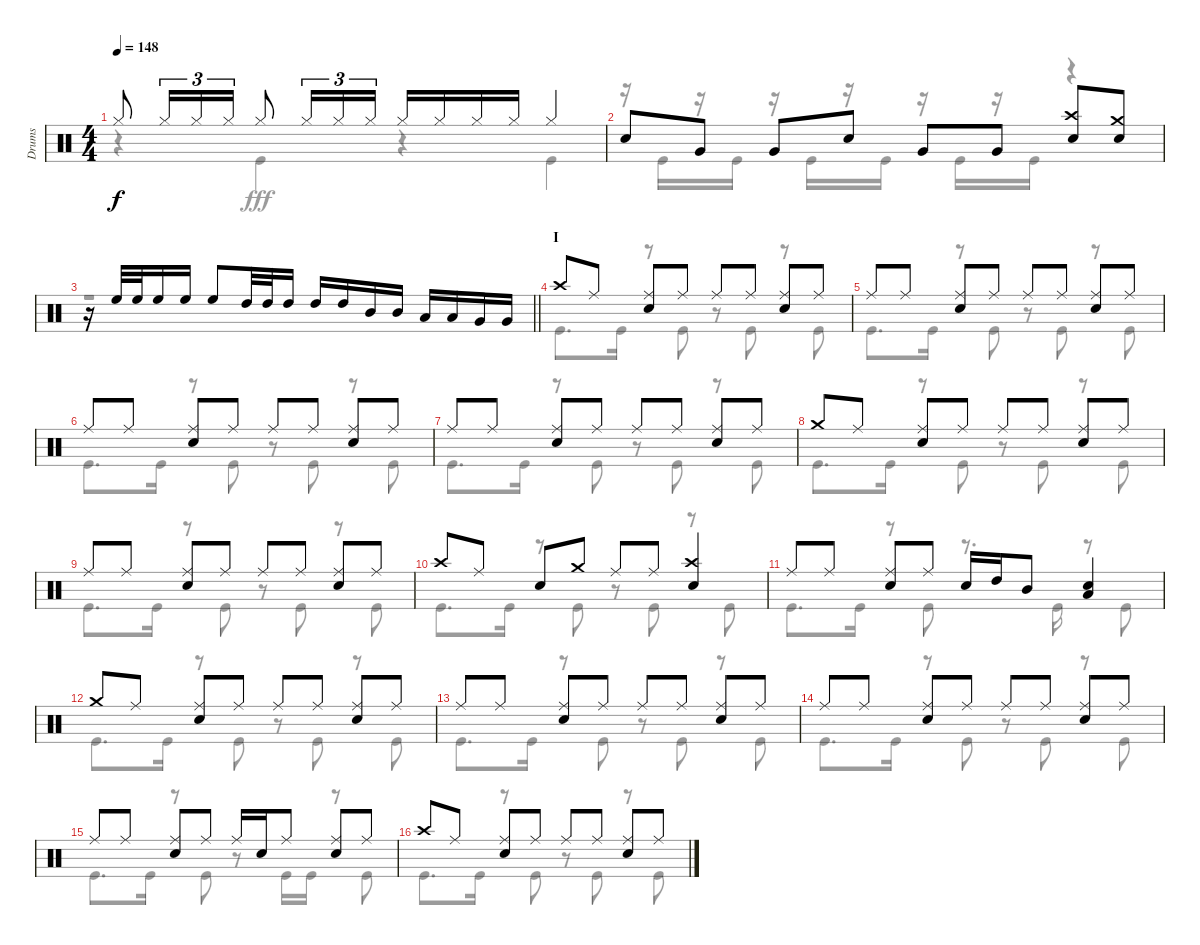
\track ("Drums" "Drums") {instrument percussion}
\staff {score}
\articulation defaults
\voice
\ts (4 4)
\tempo 148
\clef neutral
\ks c "Hi-Hat (closed)".8{dy f} "Hi-Hat (closed)".16{tu (3 2)} "Hi-Hat (closed)".16{tu (3 2)} "Hi-Hat (closed)".16{tu (3 2)} "Hi-Hat (closed)".8 "Hi-Hat (closed)".16{tu (3 2)} "Hi-Hat (closed)".16{tu (3 2)} "Hi-Hat (closed)".16{tu (3 2)} "Hi-Hat (closed)".16 "Hi-Hat (closed)".16 "Hi-Hat (closed)".16 "Hi-Hat (closed)".16 "Hi-Hat (closed)".4
|
"Snare (hit) 2".8 "Very Low Tom (hit)".8 "Very Low Tom (hit)".8 "Snare (hit) 2".8 "Very Low Tom (hit)".8 "Very Low Tom (hit)".8 ("Crash high (hit)" "Snare (hit) 2").8 ("Crash medium (hit)" "Snare (hit) 2").8 |
\barLineRight lightlight
r.16 "High Floor Tom (hit)".32 "High Floor Tom (hit)".32 "High Floor Tom (hit)".16 "High Floor Tom (hit)".16 "High Floor Tom (hit)".8 "High Tom (hit)".32 "High Tom (hit)".32 "High Tom (hit)".16 "High Tom (hit)".16 "High Tom (hit)".16 "Mid Tom (hit)".16 "Mid Tom (hit)".16 "Low Tom (hit)".16 "Low Tom (hit)".16 "Very Low Tom (hit)".16 "Very Low Tom (hit)".16 |
\section ("" "I")
"Crash high (hit)".8 "Ride (middle)".8 ("Ride (middle)" "Snare (hit) 2").8 "Ride (middle)".8 "Ride (middle)".8 "Ride (middle)".8 ("Ride (middle)" "Snare (hit) 2").8 "Ride (middle)".8 |
"Ride (middle)".8 "Ride (middle)".8 ("Ride (middle)" "Snare (hit) 2").8 "Ride (middle)".8 "Ride (middle)".8 "Ride (middle)".8 ("Ride (middle)" "Snare (hit) 2").8 "Ride (middle)".8 |
"Ride (middle)".8 "Ride (middle)".8 ("Ride (middle)" "Snare (hit) 2").8 "Ride (middle)".8 "Ride (middle)".8 "Ride (middle)".8 ("Ride (middle)" "Snare (hit) 2").8 "Ride (middle)".8 |
"Ride (middle)".8 "Ride (middle)".8 ("Ride (middle)" "Snare (hit) 2").8 "Ride (middle)".8 "Ride (middle)".8 "Ride (middle)".8 ("Ride (middle)" "Snare (hit) 2").8 "Ride (middle)".8 |
"Crash medium (hit)".8 "Ride (middle)".8 ("Ride (middle)" "Snare (hit) 2").8 "Ride (middle)".8 "Ride (middle)".8 "Ride (middle)".8 ("Ride (middle)" "Snare (hit) 2").8 "Ride (middle)".8 |
"Ride (middle)".8 "Ride (middle)".8 ("Ride (middle)" "Snare (hit) 2").8 "Ride (middle)".8 "Ride (middle)".8 "Ride (middle)".8 ("Ride (middle)" "Snare (hit) 2").8 "Ride (middle)".8 |
"Crash high (hit)".8 "Ride (middle)".8 "Snare (hit) 2".8 "Crash medium (hit)".8 "Ride (middle)".8 "Ride (middle)".8 ("Crash high (hit)" "Snare (hit) 2").4 |
"Ride (middle)".8 "Ride (middle)".8 ("Ride (middle)" "Snare (hit) 2").8 "Ride (middle)".8 "Snare (hit) 2".16 "High Tom (hit)".16 "Mid Tom (hit)".8 ("Snare (hit) 2" "Low Tom (hit)").4 |
"Crash medium (hit)".8 "Ride (middle)".8 ("Ride (middle)" "Snare (hit) 2").8 "Ride (middle)".8 "Ride (middle)".8 "Ride (middle)".8 ("Ride (middle)" "Snare (hit) 2").8 "Ride (middle)".8 |
"Ride (middle)".8 "Ride (middle)".8 ("Ride (middle)" "Snare (hit) 2").8 "Ride (middle)".8 "Ride (middle)".8 "Ride (middle)".8 ("Ride (middle)" "Snare (hit) 2").8 "Ride (middle)".8 |
"Ride (middle)".8 "Ride (middle)".8 ("Ride (middle)" "Snare (hit) 2").8 "Ride (middle)".8 "Ride (middle)".8 "Ride (middle)".8 ("Ride (middle)" "Snare (hit) 2").8 "Ride (middle)".8 |
"Ride (middle)".8 "Ride (middle)".8 ("Ride (middle)" "Snare (hit) 2").8 "Ride (middle)".8 "Ride (middle)".16 "Snare (hit) 2".16 "Ride (middle)".8 ("Ride (middle)" "Snare (hit) 2").8 "Ride (middle)".8 |
"Crash high (hit)".8 "Ride (middle)".8 ("Ride (middle)" "Snare (hit) 2").8 "Ride (middle)".8 "Ride (middle)".8 "Ride (middle)".8 ("Ride (middle)" "Snare (hit) 2").8 "Ride (middle)".8
\voice
\clef neutral
\ottava regular
\simile none
\ks c
r.4{dy fff} "Kick (hit)".4 r.4 "Kick (hit)".4 |
r.16 "Kick (hit)".16 r.16 "Kick (hit)".16 r.16 "Kick (hit)".16 r.16 "Kick (hit)".16 r.16 "Kick (hit)".16 r.16 "Kick (hit)".16 r.4 |
\barLineRight lightlight
r.1 |
"Kick (hit)".8{d} "Kick (hit)".16 r.8 "Kick (hit)".8 r.8 "Kick (hit)".8 r.8 "Kick (hit)".8 |
"Kick (hit)".8{d} "Kick (hit)".16 r.8 "Kick (hit)".8 r.8 "Kick (hit)".8 r.8 "Kick (hit)".8 |
"Kick (hit)".8{d} "Kick (hit)".16 r.8 "Kick (hit)".8 r.8 "Kick (hit)".8 r.8 "Kick (hit)".8 |
"Kick (hit)".8{d} "Kick (hit)".16 r.8 "Kick (hit)".8 r.8 "Kick (hit)".8 r.8 "Kick (hit)".8 |
"Kick (hit)".8{d} "Kick (hit)".16 r.8 "Kick (hit)".8 r.8 "Kick (hit)".8 r.8 "Kick (hit)".8 |
"Kick (hit)".8{d} "Kick (hit)".16 r.8 "Kick (hit)".8 r.8 "Kick (hit)".8 r.8 "Kick (hit)".8 |
"Kick (hit)".8{d} "Kick (hit)".16 r.8 "Kick (hit)".8 r.8 "Kick (hit)".8 r.8 "Kick (hit)".8 |
"Kick (hit)".8{d} "Kick (hit)".16 r.8 "Kick (hit)".8 r.8{d} "Kick (hit)".16 r.8 "Kick (hit)".8 |
"Kick (hit)".8{d} "Kick (hit)".16 r.8 "Kick (hit)".8 r.8 "Kick (hit)".8 r.8 "Kick (hit)".8 |
"Kick (hit)".8{d} "Kick (hit)".16 r.8 "Kick (hit)".8 r.8 "Kick (hit)".8 r.8 "Kick (hit)".8 |
"Kick (hit)".8{d} "Kick (hit)".16 r.8 "Kick (hit)".8 r.8 "Kick (hit)".8 r.8 "Kick (hit)".8 |
"Kick (hit)".8{d} "Kick (hit)".16 r.8 "Kick (hit)".8 r.8 "Kick (hit)".16 "Kick (hit)".16 r.8 "Kick (hit)".8 |
"Kick (hit)".8{d} "Kick (hit)".16 r.8 "Kick (hit)".8 r.8 "Kick (hit)".8 r.8 "Kick (hit)".8
